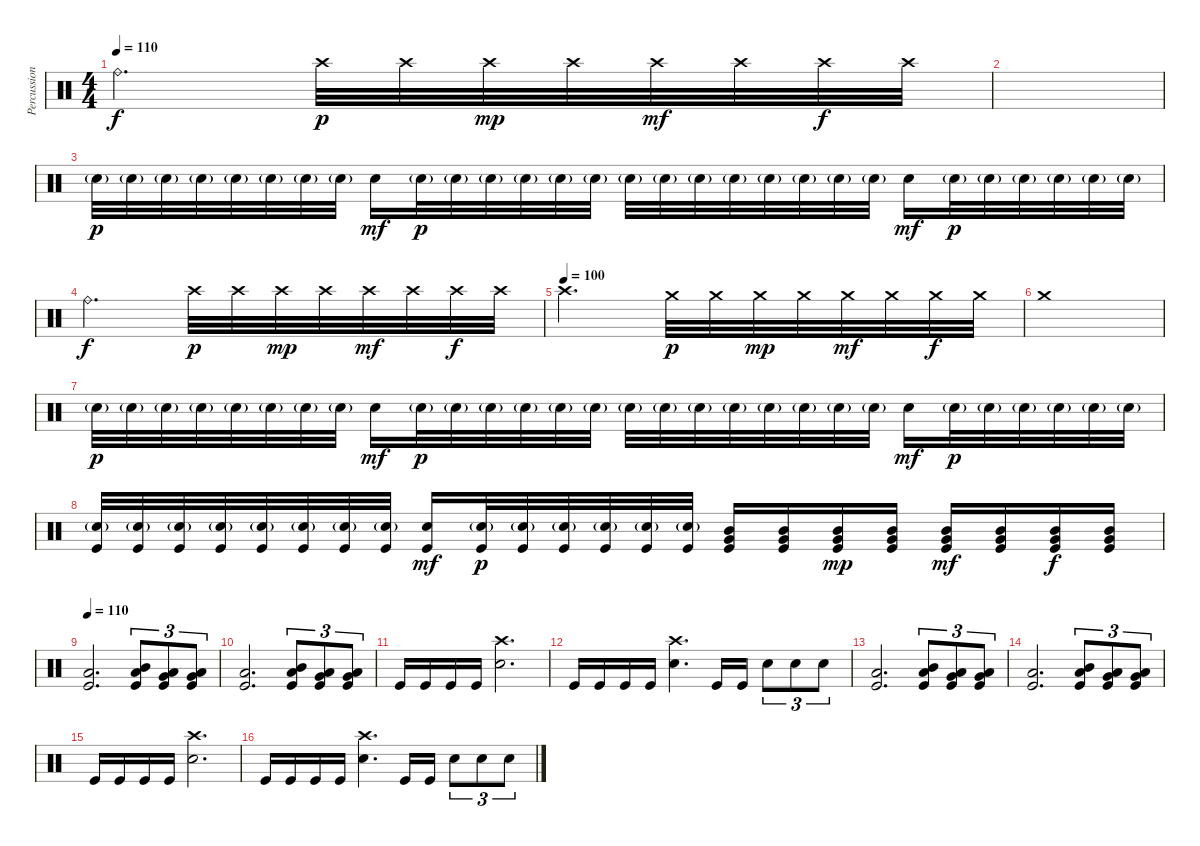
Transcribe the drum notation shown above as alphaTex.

\track ("Percussion" "Percussion") {instrument percussion}
\staff {score}
\articulation defaults
\ts (4 4)
\tempo 110
\tempo 100
\tempo 110
\clef neutral
\ks c "Ride (bell)".2{d dy f} "Crash high (hit)".32{dy p} "Crash high (hit)".32 "Crash high (hit)".32{dy mp} "Crash high (hit)".32 "Crash high (hit)".32{dy mf} "Crash high (hit)".32 "Crash high (hit)".32{dy f} "Crash high (hit)".32
|
|
"Electric Snare (hit)"{g}.32{dy p} "Electric Snare (hit)"{g}.32 "Electric Snare (hit)"{g}.32 "Electric Snare (hit)"{g}.32 "Electric Snare (hit)"{g}.32 "Electric Snare (hit)"{g}.32 "Electric Snare (hit)"{g}.32 "Electric Snare (hit)"{g}.32 "Electric Snare (hit)".16{dy mf} "Electric Snare (hit)"{g}.32{dy p} "Electric Snare (hit)"{g}.32 "Electric Snare (hit)"{g}.32 "Electric Snare (hit)"{g}.32 "Electric Snare (hit)"{g}.32 "Electric Snare (hit)"{g}.32 "Electric Snare (hit)"{g}.32 "Electric Snare (hit)"{g}.32 "Electric Snare (hit)"{g}.32 "Electric Snare (hit)"{g}.32 "Electric Snare (hit)"{g}.32 "Electric Snare (hit)"{g}.32 "Electric Snare (hit)"{g}.32 "Electric Snare (hit)"{g}.32 "Electric Snare (hit)".16{dy mf} "Electric Snare (hit)"{g}.32{dy p} "Electric Snare (hit)"{g}.32 "Electric Snare (hit)"{g}.32 "Electric Snare (hit)"{g}.32 "Electric Snare (hit)"{g}.32 "Electric Snare (hit)"{g}.32 |
"Ride (bell)".2{d dy f} "Crash high (hit)".32{dy p} "Crash high (hit)".32 "Crash high (hit)".32{dy mp} "Crash high (hit)".32 "Crash high (hit)".32{dy mf} "Crash high (hit)".32 "Crash high (hit)".32{dy f} "Crash high (hit)".32 |
\tempo (100)
"Crash high (hit)".2{d} "Crash medium (hit)".32{dy p} "Crash medium (hit)".32 "Crash medium (hit)".32{dy mp} "Crash medium (hit)".32 "Crash medium (hit)".32{dy mf} "Crash medium (hit)".32 "Crash medium (hit)".32{dy f} "Crash medium (hit)".32 |
"Crash medium (hit)".1 |
"Electric Snare (hit)"{g}.32{dy p} "Electric Snare (hit)"{g}.32 "Electric Snare (hit)"{g}.32 "Electric Snare (hit)"{g}.32 "Electric Snare (hit)"{g}.32 "Electric Snare (hit)"{g}.32 "Electric Snare (hit)"{g}.32 "Electric Snare (hit)"{g}.32 "Electric Snare (hit)".16{dy mf} "Electric Snare (hit)"{g}.32{dy p} "Electric Snare (hit)"{g}.32 "Electric Snare (hit)"{g}.32 "Electric Snare (hit)"{g}.32 "Electric Snare (hit)"{g}.32 "Electric Snare (hit)"{g}.32 "Electric Snare (hit)"{g}.32 "Electric Snare (hit)"{g}.32 "Electric Snare (hit)"{g}.32 "Electric Snare (hit)"{g}.32 "Electric Snare (hit)"{g}.32 "Electric Snare (hit)"{g}.32 "Electric Snare (hit)"{g}.32 "Electric Snare (hit)"{g}.32 "Electric Snare (hit)".16{dy mf} "Electric Snare (hit)"{g}.32{dy p} "Electric Snare (hit)"{g}.32 "Electric Snare (hit)"{g}.32 "Electric Snare (hit)"{g}.32 "Electric Snare (hit)"{g}.32 "Electric Snare (hit)"{g}.32 |
("Electric Snare (hit)"{g} "Kick (hit)").32 ("Electric Snare (hit)"{g} "Kick (hit)").32 ("Electric Snare (hit)"{g} "Kick (hit)").32 ("Electric Snare (hit)"{g} "Kick (hit)").32 ("Electric Snare (hit)"{g} "Kick (hit)").32 ("Electric Snare (hit)"{g} "Kick (hit)").32 ("Electric Snare (hit)"{g} "Kick (hit)").32 ("Electric Snare (hit)"{g} "Kick (hit)").32 ("Electric Snare (hit)" "Kick (hit)").16{dy mf} ("Electric Snare (hit)"{g} "Kick (hit)").32{dy p} ("Electric Snare (hit)"{g} "Kick (hit)").32 ("Electric Snare (hit)"{g} "Kick (hit)").32 ("Electric Snare (hit)"{g} "Kick (hit)").32 ("Electric Snare (hit)"{g} "Kick (hit)").32 ("Electric Snare (hit)"{g} "Kick (hit)").32 ("Mid Tom (hit)" "Very Low Tom (hit)" "Kick (hit)").16 ("Mid Tom (hit)" "Very Low Tom (hit)" "Kick (hit)").16 ("Mid Tom (hit)" "Very Low Tom (hit)" "Kick (hit)").16{dy mp} ("Mid Tom (hit)" "Very Low Tom (hit)" "Kick (hit)").16 ("Mid Tom (hit)" "Very Low Tom (hit)" "Kick (hit)").16{dy mf} ("Mid Tom (hit)" "Very Low Tom (hit)" "Kick (hit)").16 ("Mid Tom (hit)" "Very Low Tom (hit)" "Kick (hit)").16{dy f} ("Mid Tom (hit)" "Very Low Tom (hit)" "Kick (hit)").16 |
\tempo 110
("Low Floor Tom (hit)" "Kick (hit)").2{d} ("Mid Tom (hit)" "Low Tom (hit)" "Kick (hit)").8{tu (3 2)} ("Low Tom (hit)" "Very Low Tom (hit)" "Kick (hit)").8{tu (3 2)} ("Very Low Tom (hit)" "Low Floor Tom (hit)" "Kick (hit)").8{tu (3 2)} |
("Low Floor Tom (hit)" "Kick (hit)").2{d} ("Mid Tom (hit)" "Low Tom (hit)" "Kick (hit)").8{tu (3 2)} ("Low Tom (hit)" "Very Low Tom (hit)" "Kick (hit)").8{tu (3 2)} ("Very Low Tom (hit)" "Low Floor Tom (hit)" "Kick (hit)").8{tu (3 2)} |
"Kick (hit)".16 "Kick (hit)".16 "Kick (hit)".16 "Kick (hit)".16 ("Crash high (hit)" "Electric Snare (hit)").2{d} |
"Kick (hit)".16 "Kick (hit)".16 "Kick (hit)".16 "Kick (hit)".16 ("Crash high (hit)" "Electric Snare (hit)").4{d} "Kick (hit)".16 "Kick (hit)".16 "Electric Snare (hit)".8{tu (3 2)} "Electric Snare (hit)".8{tu (3 2)} "Electric Snare (hit)".8{tu (3 2)} |
("Low Floor Tom (hit)" "Kick (hit)").2{d} ("Mid Tom (hit)" "Low Tom (hit)" "Kick (hit)").8{tu (3 2)} ("Low Tom (hit)" "Very Low Tom (hit)" "Kick (hit)").8{tu (3 2)} ("Very Low Tom (hit)" "Low Floor Tom (hit)" "Kick (hit)").8{tu (3 2)} |
("Low Floor Tom (hit)" "Kick (hit)").2{d} ("Mid Tom (hit)" "Low Tom (hit)" "Kick (hit)").8{tu (3 2)} ("Low Tom (hit)" "Very Low Tom (hit)" "Kick (hit)").8{tu (3 2)} ("Very Low Tom (hit)" "Low Floor Tom (hit)" "Kick (hit)").8{tu (3 2)} |
"Kick (hit)".16 "Kick (hit)".16 "Kick (hit)".16 "Kick (hit)".16 ("Crash high (hit)" "Electric Snare (hit)").2{d} |
"Kick (hit)".16 "Kick (hit)".16 "Kick (hit)".16 "Kick (hit)".16 ("Crash high (hit)" "Electric Snare (hit)").4{d} "Kick (hit)".16 "Kick (hit)".16 "Electric Snare (hit)".8{tu (3 2)} "Electric Snare (hit)".8{tu (3 2)} "Electric Snare (hit)".8{tu (3 2)}
